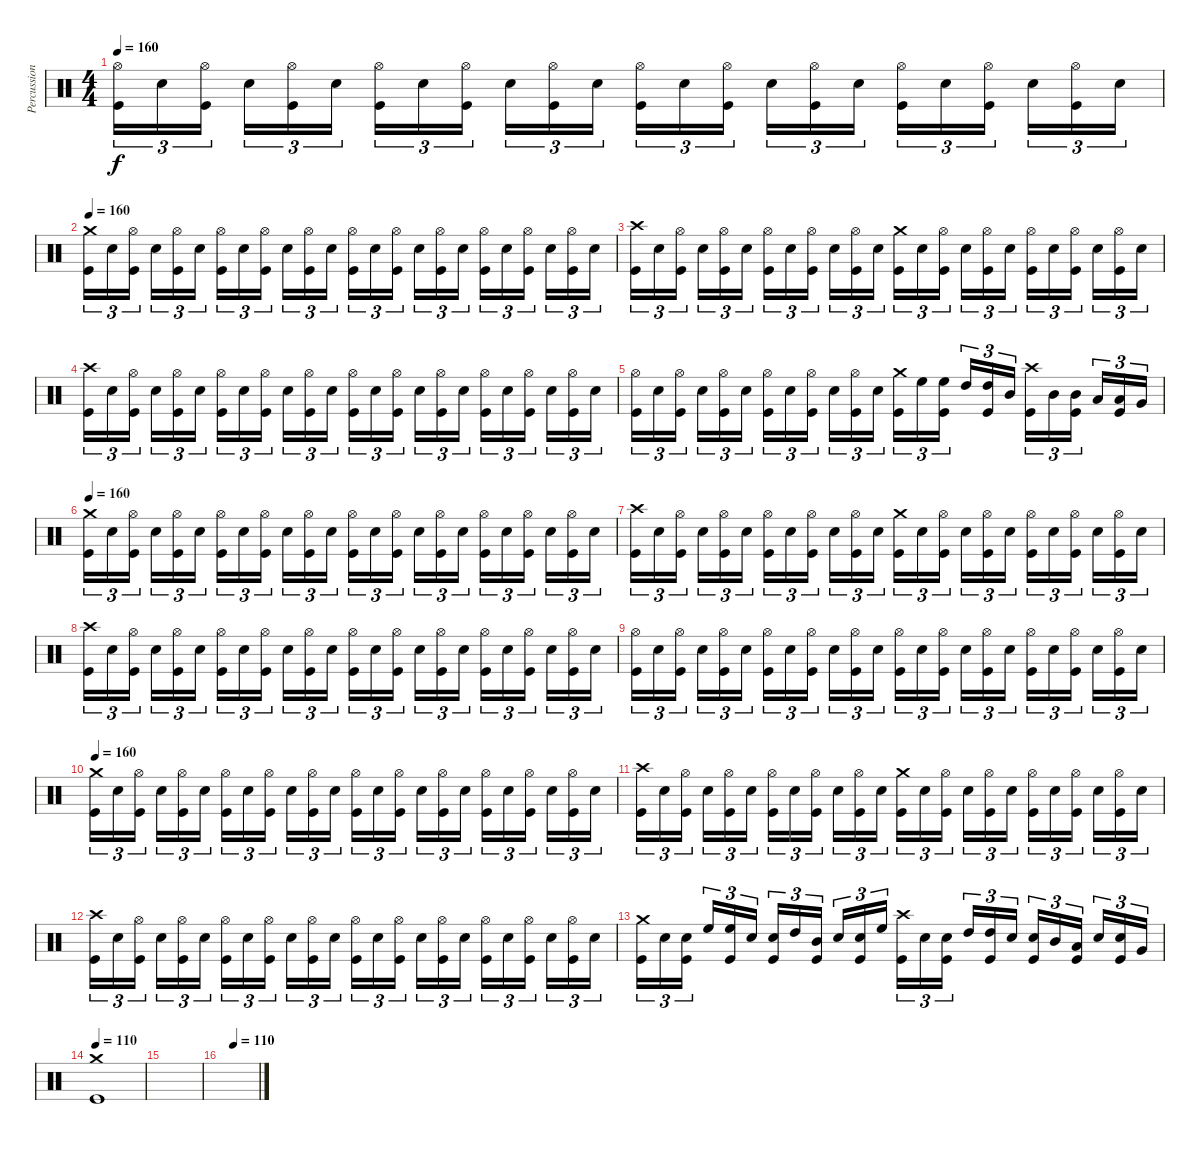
\track ("Percussion" "Percussion") {instrument percussion}
\staff {score}
\articulation defaults
\ts (4 4)
\tempo 160
\clef neutral
\ks c
("Hi-Hat (open)" "Kick (hit)").16{tu (3 2) dy f} "Snare (hit) 2".16{tu (3 2)} ("Hi-Hat (open)" "Kick (hit)").16{tu (3 2) beam splitsecondary} "Snare (hit) 2".16{tu (3 2)} ("Hi-Hat (open)" "Kick (hit)").16{tu (3 2)} "Snare (hit) 2".16{tu (3 2)} ("Hi-Hat (open)" "Kick (hit)").16{tu (3 2)} "Snare (hit) 2".16{tu (3 2)} ("Hi-Hat (open)" "Kick (hit)").16{tu (3 2) beam splitsecondary} "Snare (hit) 2".16{tu (3 2)} ("Hi-Hat (open)" "Kick (hit)").16{tu (3 2)} "Snare (hit) 2".16{tu (3 2)} ("Hi-Hat (open)" "Kick (hit)").16{tu (3 2)} "Snare (hit) 2".16{tu (3 2)} ("Hi-Hat (open)" "Kick (hit)").16{tu (3 2) beam splitsecondary} "Snare (hit) 2".16{tu (3 2)} ("Hi-Hat (open)" "Kick (hit)").16{tu (3 2)} "Snare (hit) 2".16{tu (3 2)} ("Hi-Hat (open)" "Kick (hit)").16{tu (3 2)} "Snare (hit) 2".16{tu (3 2)} ("Hi-Hat (open)" "Kick (hit)").16{tu (3 2) beam splitsecondary} "Snare (hit) 2".16{tu (3 2)} ("Hi-Hat (open)" "Kick (hit)").16{tu (3 2)} "Snare (hit) 2".16{tu (3 2)} |
\tempo 160
("Crash medium (hit)" "Kick (hit)").16{tu (3 2)} "Snare (hit) 2".16{tu (3 2)} ("Hi-Hat (open)" "Kick (hit)").16{tu (3 2) beam splitsecondary} "Snare (hit) 2".16{tu (3 2)} ("Hi-Hat (open)" "Kick (hit)").16{tu (3 2)} "Snare (hit) 2".16{tu (3 2)} ("Hi-Hat (open)" "Kick (hit)").16{tu (3 2)} "Snare (hit) 2".16{tu (3 2)} ("Hi-Hat (open)" "Kick (hit)").16{tu (3 2) beam splitsecondary} "Snare (hit) 2".16{tu (3 2)} ("Hi-Hat (open)" "Kick (hit)").16{tu (3 2)} "Snare (hit) 2".16{tu (3 2)} ("Hi-Hat (open)" "Kick (hit)").16{tu (3 2)} "Snare (hit) 2".16{tu (3 2)} ("Hi-Hat (open)" "Kick (hit)").16{tu (3 2) beam splitsecondary} "Snare (hit) 2".16{tu (3 2)} ("Hi-Hat (open)" "Kick (hit)").16{tu (3 2)} "Snare (hit) 2".16{tu (3 2)} ("Hi-Hat (open)" "Kick (hit)").16{tu (3 2)} "Snare (hit) 2".16{tu (3 2)} ("Hi-Hat (open)" "Kick (hit)").16{tu (3 2) beam splitsecondary} "Snare (hit) 2".16{tu (3 2)} ("Hi-Hat (open)" "Kick (hit)").16{tu (3 2)} "Snare (hit) 2".16{tu (3 2)} |
("Crash high (hit)" "Kick (hit)").16{tu (3 2)} "Snare (hit) 2".16{tu (3 2)} ("Hi-Hat (open)" "Kick (hit)").16{tu (3 2) beam splitsecondary} "Snare (hit) 2".16{tu (3 2)} ("Hi-Hat (open)" "Kick (hit)").16{tu (3 2)} "Snare (hit) 2".16{tu (3 2)} ("Hi-Hat (open)" "Kick (hit)").16{tu (3 2)} "Snare (hit) 2".16{tu (3 2)} ("Hi-Hat (open)" "Kick (hit)").16{tu (3 2) beam splitsecondary} "Snare (hit) 2".16{tu (3 2)} ("Hi-Hat (open)" "Kick (hit)").16{tu (3 2)} "Snare (hit) 2".16{tu (3 2)} ("Crash medium (hit)" "Kick (hit)").16{tu (3 2)} "Snare (hit) 2".16{tu (3 2)} ("Hi-Hat (open)" "Kick (hit)").16{tu (3 2) beam splitsecondary} "Snare (hit) 2".16{tu (3 2)} ("Hi-Hat (open)" "Kick (hit)").16{tu (3 2)} "Snare (hit) 2".16{tu (3 2)} ("Hi-Hat (open)" "Kick (hit)").16{tu (3 2)} "Snare (hit) 2".16{tu (3 2)} ("Hi-Hat (open)" "Kick (hit)").16{tu (3 2) beam splitsecondary} "Snare (hit) 2".16{tu (3 2)} ("Hi-Hat (open)" "Kick (hit)").16{tu (3 2)} "Snare (hit) 2".16{tu (3 2)} |
("Crash high (hit)" "Kick (hit)").16{tu (3 2)} "Snare (hit) 2".16{tu (3 2)} ("Hi-Hat (open)" "Kick (hit)").16{tu (3 2) beam splitsecondary} "Snare (hit) 2".16{tu (3 2)} ("Hi-Hat (open)" "Kick (hit)").16{tu (3 2)} "Snare (hit) 2".16{tu (3 2)} ("Hi-Hat (open)" "Kick (hit)").16{tu (3 2)} "Snare (hit) 2".16{tu (3 2)} ("Hi-Hat (open)" "Kick (hit)").16{tu (3 2) beam splitsecondary} "Snare (hit) 2".16{tu (3 2)} ("Hi-Hat (open)" "Kick (hit)").16{tu (3 2)} "Snare (hit) 2".16{tu (3 2)} ("Hi-Hat (open)" "Kick (hit)").16{tu (3 2)} "Snare (hit) 2".16{tu (3 2)} ("Hi-Hat (open)" "Kick (hit)").16{tu (3 2) beam splitsecondary} "Snare (hit) 2".16{tu (3 2)} ("Hi-Hat (open)" "Kick (hit)").16{tu (3 2)} "Snare (hit) 2".16{tu (3 2)} ("Hi-Hat (open)" "Kick (hit)").16{tu (3 2)} "Snare (hit) 2".16{tu (3 2)} ("Hi-Hat (open)" "Kick (hit)").16{tu (3 2) beam splitsecondary} "Snare (hit) 2".16{tu (3 2)} ("Hi-Hat (open)" "Kick (hit)").16{tu (3 2)} "Snare (hit) 2".16{tu (3 2)} |
("Hi-Hat (open)" "Kick (hit)").16{tu (3 2)} "Snare (hit) 2".16{tu (3 2)} ("Hi-Hat (open)" "Kick (hit)").16{tu (3 2) beam splitsecondary} "Snare (hit) 2".16{tu (3 2)} ("Hi-Hat (open)" "Kick (hit)").16{tu (3 2)} "Snare (hit) 2".16{tu (3 2)} ("Hi-Hat (open)" "Kick (hit)").16{tu (3 2)} "Snare (hit) 2".16{tu (3 2)} ("Hi-Hat (open)" "Kick (hit)").16{tu (3 2) beam splitsecondary} "Snare (hit) 2".16{tu (3 2)} ("Hi-Hat (open)" "Kick (hit)").16{tu (3 2)} "Snare (hit) 2".16{tu (3 2)} ("Crash medium (hit)" "Kick (hit)").16{tu (3 2)} "High Floor Tom (hit)".16{tu (3 2)} ("High Floor Tom (hit)" "Kick (hit)").16{tu (3 2) beam splitsecondary} "High Tom (hit)".16{tu (3 2)} ("High Tom (hit)" "Kick (hit)").16{tu (3 2)} "Mid Tom (hit)".16{tu (3 2)} ("Crash high (hit)" "Kick (hit)").16{tu (3 2)} "Mid Tom (hit)".16{tu (3 2)} ("Mid Tom (hit)" "Kick (hit)").16{tu (3 2) beam splitsecondary} "Low Tom (hit)".16{tu (3 2)} ("Low Tom (hit)" "Kick (hit)").16{tu (3 2)} "Very Low Tom (hit)".16{tu (3 2)} |
\tempo 160
("Crash medium (hit)" "Kick (hit)").16{tu (3 2)} "Snare (hit) 2".16{tu (3 2)} ("Hi-Hat (open)" "Kick (hit)").16{tu (3 2) beam splitsecondary} "Snare (hit) 2".16{tu (3 2)} ("Hi-Hat (open)" "Kick (hit)").16{tu (3 2)} "Snare (hit) 2".16{tu (3 2)} ("Hi-Hat (open)" "Kick (hit)").16{tu (3 2)} "Snare (hit) 2".16{tu (3 2)} ("Hi-Hat (open)" "Kick (hit)").16{tu (3 2) beam splitsecondary} "Snare (hit) 2".16{tu (3 2)} ("Hi-Hat (open)" "Kick (hit)").16{tu (3 2)} "Snare (hit) 2".16{tu (3 2)} ("Hi-Hat (open)" "Kick (hit)").16{tu (3 2)} "Snare (hit) 2".16{tu (3 2)} ("Hi-Hat (open)" "Kick (hit)").16{tu (3 2) beam splitsecondary} "Snare (hit) 2".16{tu (3 2)} ("Hi-Hat (open)" "Kick (hit)").16{tu (3 2)} "Snare (hit) 2".16{tu (3 2)} ("Hi-Hat (open)" "Kick (hit)").16{tu (3 2)} "Snare (hit) 2".16{tu (3 2)} ("Hi-Hat (open)" "Kick (hit)").16{tu (3 2) beam splitsecondary} "Snare (hit) 2".16{tu (3 2)} ("Hi-Hat (open)" "Kick (hit)").16{tu (3 2)} "Snare (hit) 2".16{tu (3 2)} |
("Crash high (hit)" "Kick (hit)").16{tu (3 2)} "Snare (hit) 2".16{tu (3 2)} ("Hi-Hat (open)" "Kick (hit)").16{tu (3 2) beam splitsecondary} "Snare (hit) 2".16{tu (3 2)} ("Hi-Hat (open)" "Kick (hit)").16{tu (3 2)} "Snare (hit) 2".16{tu (3 2)} ("Hi-Hat (open)" "Kick (hit)").16{tu (3 2)} "Snare (hit) 2".16{tu (3 2)} ("Hi-Hat (open)" "Kick (hit)").16{tu (3 2) beam splitsecondary} "Snare (hit) 2".16{tu (3 2)} ("Hi-Hat (open)" "Kick (hit)").16{tu (3 2)} "Snare (hit) 2".16{tu (3 2)} ("Crash medium (hit)" "Kick (hit)").16{tu (3 2)} "Snare (hit) 2".16{tu (3 2)} ("Hi-Hat (open)" "Kick (hit)").16{tu (3 2) beam splitsecondary} "Snare (hit) 2".16{tu (3 2)} ("Hi-Hat (open)" "Kick (hit)").16{tu (3 2)} "Snare (hit) 2".16{tu (3 2)} ("Hi-Hat (open)" "Kick (hit)").16{tu (3 2)} "Snare (hit) 2".16{tu (3 2)} ("Hi-Hat (open)" "Kick (hit)").16{tu (3 2) beam splitsecondary} "Snare (hit) 2".16{tu (3 2)} ("Hi-Hat (open)" "Kick (hit)").16{tu (3 2)} "Snare (hit) 2".16{tu (3 2)} |
("Crash high (hit)" "Kick (hit)").16{tu (3 2)} "Snare (hit) 2".16{tu (3 2)} ("Hi-Hat (open)" "Kick (hit)").16{tu (3 2) beam splitsecondary} "Snare (hit) 2".16{tu (3 2)} ("Hi-Hat (open)" "Kick (hit)").16{tu (3 2)} "Snare (hit) 2".16{tu (3 2)} ("Hi-Hat (open)" "Kick (hit)").16{tu (3 2)} "Snare (hit) 2".16{tu (3 2)} ("Hi-Hat (open)" "Kick (hit)").16{tu (3 2) beam splitsecondary} "Snare (hit) 2".16{tu (3 2)} ("Hi-Hat (open)" "Kick (hit)").16{tu (3 2)} "Snare (hit) 2".16{tu (3 2)} ("Hi-Hat (open)" "Kick (hit)").16{tu (3 2)} "Snare (hit) 2".16{tu (3 2)} ("Hi-Hat (open)" "Kick (hit)").16{tu (3 2) beam splitsecondary} "Snare (hit) 2".16{tu (3 2)} ("Hi-Hat (open)" "Kick (hit)").16{tu (3 2)} "Snare (hit) 2".16{tu (3 2)} ("Hi-Hat (open)" "Kick (hit)").16{tu (3 2)} "Snare (hit) 2".16{tu (3 2)} ("Hi-Hat (open)" "Kick (hit)").16{tu (3 2) beam splitsecondary} "Snare (hit) 2".16{tu (3 2)} ("Hi-Hat (open)" "Kick (hit)").16{tu (3 2)} "Snare (hit) 2".16{tu (3 2)} |
("Hi-Hat (open)" "Kick (hit)").16{tu (3 2)} "Snare (hit) 2".16{tu (3 2)} ("Hi-Hat (open)" "Kick (hit)").16{tu (3 2) beam splitsecondary} "Snare (hit) 2".16{tu (3 2)} ("Hi-Hat (open)" "Kick (hit)").16{tu (3 2)} "Snare (hit) 2".16{tu (3 2)} ("Hi-Hat (open)" "Kick (hit)").16{tu (3 2)} "Snare (hit) 2".16{tu (3 2)} ("Hi-Hat (open)" "Kick (hit)").16{tu (3 2) beam splitsecondary} "Snare (hit) 2".16{tu (3 2)} ("Hi-Hat (open)" "Kick (hit)").16{tu (3 2)} "Snare (hit) 2".16{tu (3 2)} ("Hi-Hat (open)" "Kick (hit)").16{tu (3 2)} "Snare (hit) 2".16{tu (3 2)} ("Hi-Hat (open)" "Kick (hit)").16{tu (3 2) beam splitsecondary} "Snare (hit) 2".16{tu (3 2)} ("Hi-Hat (open)" "Kick (hit)").16{tu (3 2)} "Snare (hit) 2".16{tu (3 2)} ("Hi-Hat (open)" "Kick (hit)").16{tu (3 2)} "Snare (hit) 2".16{tu (3 2)} ("Hi-Hat (open)" "Kick (hit)").16{tu (3 2) beam splitsecondary} "Snare (hit) 2".16{tu (3 2)} ("Hi-Hat (open)" "Kick (hit)").16{tu (3 2)} "Snare (hit) 2".16{tu (3 2)} |
\tempo 160
("Crash medium (hit)" "Kick (hit)").16{tu (3 2)} "Snare (hit) 2".16{tu (3 2)} ("Hi-Hat (open)" "Kick (hit)").16{tu (3 2) beam splitsecondary} "Snare (hit) 2".16{tu (3 2)} ("Hi-Hat (open)" "Kick (hit)").16{tu (3 2)} "Snare (hit) 2".16{tu (3 2)} ("Hi-Hat (open)" "Kick (hit)").16{tu (3 2)} "Snare (hit) 2".16{tu (3 2)} ("Hi-Hat (open)" "Kick (hit)").16{tu (3 2) beam splitsecondary} "Snare (hit) 2".16{tu (3 2)} ("Hi-Hat (open)" "Kick (hit)").16{tu (3 2)} "Snare (hit) 2".16{tu (3 2)} ("Hi-Hat (open)" "Kick (hit)").16{tu (3 2)} "Snare (hit) 2".16{tu (3 2)} ("Hi-Hat (open)" "Kick (hit)").16{tu (3 2) beam splitsecondary} "Snare (hit) 2".16{tu (3 2)} ("Hi-Hat (open)" "Kick (hit)").16{tu (3 2)} "Snare (hit) 2".16{tu (3 2)} ("Hi-Hat (open)" "Kick (hit)").16{tu (3 2)} "Snare (hit) 2".16{tu (3 2)} ("Hi-Hat (open)" "Kick (hit)").16{tu (3 2) beam splitsecondary} "Snare (hit) 2".16{tu (3 2)} ("Hi-Hat (open)" "Kick (hit)").16{tu (3 2)} "Snare (hit) 2".16{tu (3 2)} |
("Crash high (hit)" "Kick (hit)").16{tu (3 2)} "Snare (hit) 2".16{tu (3 2)} ("Hi-Hat (open)" "Kick (hit)").16{tu (3 2) beam splitsecondary} "Snare (hit) 2".16{tu (3 2)} ("Hi-Hat (open)" "Kick (hit)").16{tu (3 2)} "Snare (hit) 2".16{tu (3 2)} ("Hi-Hat (open)" "Kick (hit)").16{tu (3 2)} "Snare (hit) 2".16{tu (3 2)} ("Hi-Hat (open)" "Kick (hit)").16{tu (3 2) beam splitsecondary} "Snare (hit) 2".16{tu (3 2)} ("Hi-Hat (open)" "Kick (hit)").16{tu (3 2)} "Snare (hit) 2".16{tu (3 2)} ("Crash medium (hit)" "Kick (hit)").16{tu (3 2)} "Snare (hit) 2".16{tu (3 2)} ("Hi-Hat (open)" "Kick (hit)").16{tu (3 2) beam splitsecondary} "Snare (hit) 2".16{tu (3 2)} ("Hi-Hat (open)" "Kick (hit)").16{tu (3 2)} "Snare (hit) 2".16{tu (3 2)} ("Hi-Hat (open)" "Kick (hit)").16{tu (3 2)} "Snare (hit) 2".16{tu (3 2)} ("Hi-Hat (open)" "Kick (hit)").16{tu (3 2) beam splitsecondary} "Snare (hit) 2".16{tu (3 2)} ("Hi-Hat (open)" "Kick (hit)").16{tu (3 2)} "Snare (hit) 2".16{tu (3 2)} |
("Crash high (hit)" "Kick (hit)").16{tu (3 2)} "Snare (hit) 2".16{tu (3 2)} ("Hi-Hat (open)" "Kick (hit)").16{tu (3 2) beam splitsecondary} "Snare (hit) 2".16{tu (3 2)} ("Hi-Hat (open)" "Kick (hit)").16{tu (3 2)} "Snare (hit) 2".16{tu (3 2)} ("Hi-Hat (open)" "Kick (hit)").16{tu (3 2)} "Snare (hit) 2".16{tu (3 2)} ("Hi-Hat (open)" "Kick (hit)").16{tu (3 2) beam splitsecondary} "Snare (hit) 2".16{tu (3 2)} ("Hi-Hat (open)" "Kick (hit)").16{tu (3 2)} "Snare (hit) 2".16{tu (3 2)} ("Hi-Hat (open)" "Kick (hit)").16{tu (3 2)} "Snare (hit) 2".16{tu (3 2)} ("Hi-Hat (open)" "Kick (hit)").16{tu (3 2) beam splitsecondary} "Snare (hit) 2".16{tu (3 2)} ("Hi-Hat (open)" "Kick (hit)").16{tu (3 2)} "Snare (hit) 2".16{tu (3 2)} ("Hi-Hat (open)" "Kick (hit)").16{tu (3 2)} "Snare (hit) 2".16{tu (3 2)} ("Hi-Hat (open)" "Kick (hit)").16{tu (3 2) beam splitsecondary} "Snare (hit) 2".16{tu (3 2)} ("Hi-Hat (open)" "Kick (hit)").16{tu (3 2)} "Snare (hit) 2".16{tu (3 2)} |
("Crash medium (hit)" "Kick (hit)").16{tu (3 2)} "Snare (hit) 2".16{tu (3 2)} ("Snare (hit) 2" "Kick (hit)").16{tu (3 2) beam splitsecondary} "High Floor Tom (hit)".16{tu (3 2)} ("High Floor Tom (hit)" "Kick (hit)").16{tu (3 2)} "Snare (hit) 2".16{tu (3 2)} ("Snare (hit) 2" "Kick (hit)").16{tu (3 2)} "High Tom (hit)".16{tu (3 2)} ("Mid Tom (hit)" "Kick (hit)").16{tu (3 2) beam splitsecondary} "Snare (hit) 2".16{tu (3 2)} ("Snare (hit) 2" "Kick (hit)").16{tu (3 2)} "High Floor Tom (hit)".16{tu (3 2)} ("Crash high (hit)" "Kick (hit)").16{tu (3 2)} "Snare (hit) 2".16{tu (3 2)} ("Snare (hit) 2" "Kick (hit)").16{tu (3 2) beam splitsecondary} "High Tom (hit)".16{tu (3 2)} ("High Tom (hit)" "Kick (hit)").16{tu (3 2)} "Snare (hit) 2".16{tu (3 2)} ("Snare (hit) 2" "Kick (hit)").16{tu (3 2)} "Mid Tom (hit)".16{tu (3 2)} ("Low Tom (hit)" "Kick (hit)").16{tu (3 2) beam splitsecondary} "Snare (hit) 2".16{tu (3 2)} ("Snare (hit) 2" "Kick (hit)").16{tu (3 2)} "Very Low Tom (hit)".16{tu (3 2)} |
\tempo 110
("Crash medium (hit)" "Kick (hit)").1 |
|
\tempo (110 0.3333333333333333)
